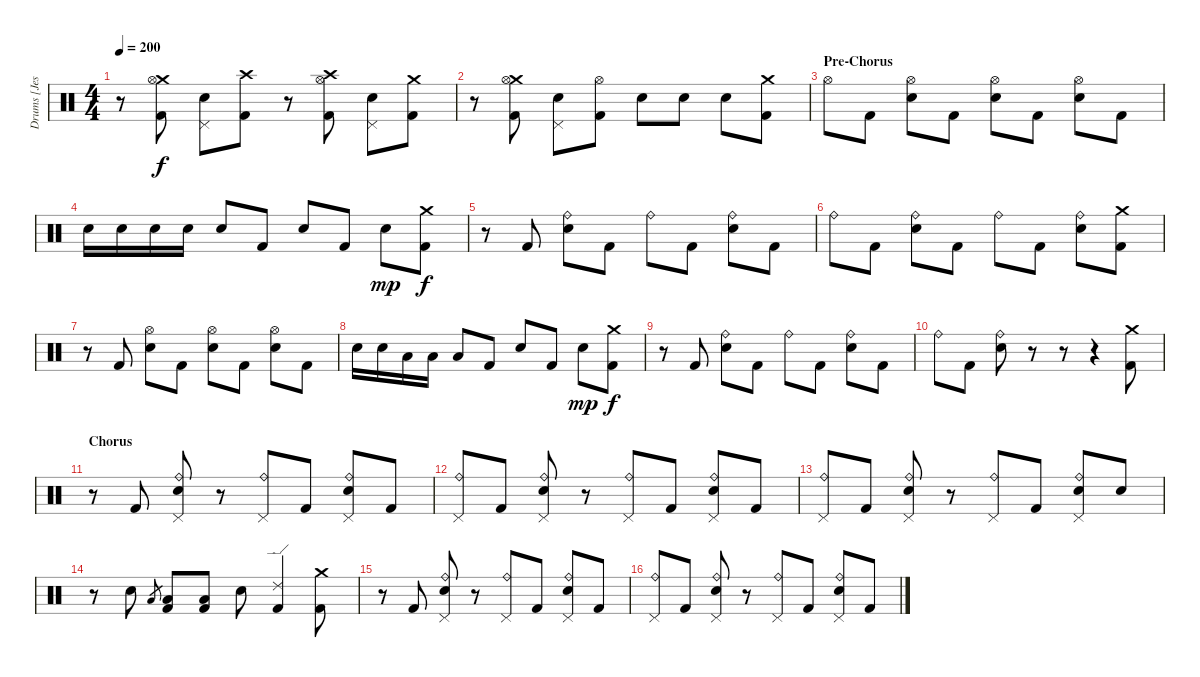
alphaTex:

\track ("Drums [Jesse Ingelevics]" "Drums [Jes") {instrument percussion}
\staff {score}
\articulation defaults
\ts (4 4)
\tempo 200
\clef neutral
\ks c
r.8{dy f} ("Crash medium (hit)" "Hi-Hat (open)" "Kick (hit) 2").8 ("Pedal Hi-Hat (hit)" "Electric Snare (hit)").8 ("Crash high (hit)" "Kick (hit) 2").8 r.8 ("Crash high (hit)" "Hi-Hat (open)" "Kick (hit) 2").8 ("Pedal Hi-Hat (hit)" "Electric Snare (hit)").8 ("Crash medium (hit)" "Kick (hit) 2").8 |
r.8 ("Crash medium (hit)" "Hi-Hat (open)" "Kick (hit) 2").8 ("Pedal Hi-Hat (hit)" "Electric Snare (hit)").8 ("Hi-Hat (open)" "Kick (hit) 2").8 "Electric Snare (hit)".8 "Electric Snare (hit)".8 "Electric Snare (hit)".8 ("Crash medium (hit)" "Kick (hit) 2").8 |
\section ("" "Pre-Chorus")
"Hi-Hat (open)".8 "Kick (hit) 2".8 ("Hi-Hat (open)" "Electric Snare (hit)").8 "Kick (hit) 2".8 ("Hi-Hat (open)" "Electric Snare (hit)").8 "Kick (hit) 2".8 ("Hi-Hat (open)" "Electric Snare (hit)").8 "Kick (hit) 2".8 |
"Electric Snare (hit)".16 "Electric Snare (hit)".16 "Electric Snare (hit)".16 "Electric Snare (hit)".16 "Electric Snare (hit)".8 "Kick (hit) 2".8 "Electric Snare (hit)".8 "Kick (hit) 2".8 "Electric Snare (hit)".8{dy mp} ("Crash medium (hit)" "Kick (hit) 2").8{dy f} |
r.8 "Kick (hit) 2".8 ("Ride (bell)" "Electric Snare (hit)").8 "Kick (hit) 2".8 "Ride (bell)".8 "Kick (hit) 2".8 ("Ride (bell)" "Electric Snare (hit)").8 "Kick (hit) 2".8 |
"Ride (bell)".8 "Kick (hit) 2".8 ("Ride (bell)" "Electric Snare (hit)").8 "Kick (hit) 2".8 "Ride (bell)".8 "Kick (hit) 2".8 ("Ride (bell)" "Electric Snare (hit)").8 ("Crash medium (hit)" "Kick (hit) 2").8 |
r.8 "Kick (hit) 2".8 ("Hi-Hat (open)" "Electric Snare (hit)").8 "Kick (hit) 2".8 ("Hi-Hat (open)" "Electric Snare (hit)").8 "Kick (hit) 2".8 ("Hi-Hat (open)" "Electric Snare (hit)").8 "Kick (hit) 2".8 |
"Electric Snare (hit)".16 "Electric Snare (hit)".16 "Low Tom (hit)".16 "Low Tom (hit)".16 "Low Tom (hit)".8 "Kick (hit) 2".8 "Electric Snare (hit)".8 "Kick (hit) 2".8 "Electric Snare (hit)".8{dy mp} ("Crash medium (hit)" "Kick (hit) 2").8{dy f} |
r.8 "Kick (hit) 2".8 ("Ride (bell)" "Electric Snare (hit)").8 "Kick (hit) 2".8 "Ride (bell)".8 "Kick (hit) 2".8 ("Ride (bell)" "Electric Snare (hit)").8 "Kick (hit) 2".8 |
"Ride (bell)".8 "Kick (hit) 2".8 ("Ride (bell)" "Electric Snare (hit)").8 r.8 r.8 r.4 ("Crash medium (hit)" "Kick (hit) 2").8 |
\section ("" "Chorus")
r.8 "Kick (hit) 2".8 ("Ride (bell)" "Pedal Hi-Hat (hit)" "Electric Snare (hit)").8 r.8 ("Ride (bell)" "Pedal Hi-Hat (hit)").8 "Kick (hit) 2".8 ("Ride (bell)" "Pedal Hi-Hat (hit)" "Electric Snare (hit)").8 "Kick (hit) 2".8 |
("Ride (bell)" "Pedal Hi-Hat (hit)").8 "Kick (hit) 2".8 ("Ride (bell)" "Pedal Hi-Hat (hit)" "Electric Snare (hit)").8 r.8 ("Ride (bell)" "Pedal Hi-Hat (hit)").8 "Kick (hit) 2".8 ("Ride (bell)" "Pedal Hi-Hat (hit)" "Electric Snare (hit)").8 "Kick (hit) 2".8 |
("Ride (bell)" "Pedal Hi-Hat (hit)").8 "Kick (hit) 2".8 ("Ride (bell)" "Pedal Hi-Hat (hit)" "Electric Snare (hit)").8 r.8 ("Ride (bell)" "Pedal Hi-Hat (hit)").8 "Kick (hit) 2".8 ("Ride (bell)" "Pedal Hi-Hat (hit)" "Electric Snare (hit)").8 "Electric Snare (hit)".8 |
r.8 "Electric Snare (hit)".8 "Low Tom (hit)".8{gr} ("Low Tom (hit)" "Kick (hit) 2").8 ("Low Tom (hit)" "Kick (hit) 2").8 "Electric Snare (hit)".8 ("Ride (edge) 2" "Kick (hit) 2").4 ("Crash medium (hit)" "Kick (hit) 2").8 |
r.8 "Kick (hit) 2".8 ("Ride (bell)" "Pedal Hi-Hat (hit)" "Electric Snare (hit)").8 r.8 ("Ride (bell)" "Pedal Hi-Hat (hit)").8 "Kick (hit) 2".8 ("Ride (bell)" "Pedal Hi-Hat (hit)" "Electric Snare (hit)").8 "Kick (hit) 2".8 |
("Ride (bell)" "Pedal Hi-Hat (hit)").8 "Kick (hit) 2".8 ("Ride (bell)" "Pedal Hi-Hat (hit)" "Electric Snare (hit)").8 r.8 ("Ride (bell)" "Pedal Hi-Hat (hit)").8 "Kick (hit) 2".8 ("Ride (bell)" "Pedal Hi-Hat (hit)" "Electric Snare (hit)").8 "Kick (hit) 2".8
